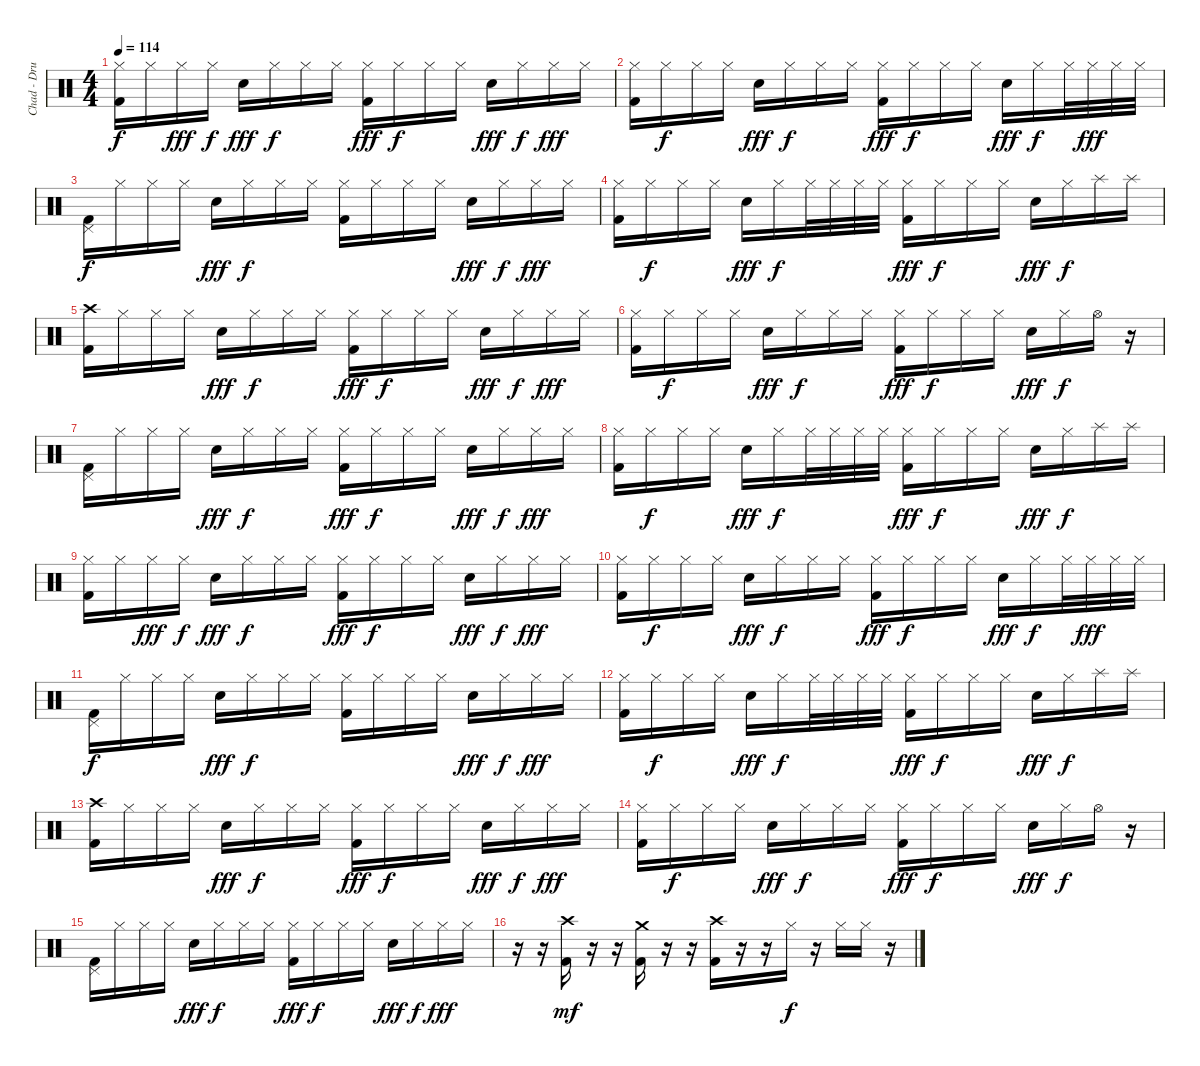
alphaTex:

\track ("Chad - Drums" "Chad - Dru") {instrument percussion}
\staff {score}
\articulation defaults
\ts (4 4)
\tempo 114
\clef neutral
\ks c
("Hi-Hat (closed)" "Kick (hit) 2").16{dy f} "Hi-Hat (closed)".16 "Hi-Hat (closed)".16{dy fff} "Hi-Hat (closed)".16{dy f} "Electric Snare (hit)".16{dy fff} "Hi-Hat (closed)".16{dy f} "Hi-Hat (closed)".16 "Hi-Hat (closed)".16 ("Hi-Hat (closed)" "Kick (hit) 2").16{dy fff} "Hi-Hat (closed)".16{dy f} "Hi-Hat (closed)".16 "Hi-Hat (closed)".16 "Electric Snare (hit)".16{dy fff} "Hi-Hat (closed)".16{dy f} "Hi-Hat (closed)".16{dy fff} "Hi-Hat (closed)".16 |
("Hi-Hat (closed)" "Kick (hit) 2").16 "Hi-Hat (closed)".16{dy f} "Hi-Hat (closed)".16 "Hi-Hat (closed)".16 "Electric Snare (hit)".16{dy fff} "Hi-Hat (closed)".16{dy f} "Hi-Hat (closed)".16 "Hi-Hat (closed)".16 ("Hi-Hat (closed)" "Kick (hit) 2").16{dy fff} "Hi-Hat (closed)".16{dy f} "Hi-Hat (closed)".16 "Hi-Hat (closed)".16 "Electric Snare (hit)".16{dy fff} "Hi-Hat (closed)".16{dy f} "Hi-Hat (closed)".32 "Hi-Hat (closed)".32{dy fff} "Hi-Hat (closed)".32 "Hi-Hat (closed)".32 |
("Pedal Hi-Hat (hit)" "Kick (hit) 2").16{dy f} "Hi-Hat (closed)".16 "Hi-Hat (closed)".16 "Hi-Hat (closed)".16 "Electric Snare (hit)".16{dy fff} "Hi-Hat (closed)".16{dy f} "Hi-Hat (closed)".16 "Hi-Hat (closed)".16 ("Hi-Hat (closed)" "Kick (hit) 2").16 "Hi-Hat (closed)".16 "Hi-Hat (closed)".16 "Hi-Hat (closed)".16 "Electric Snare (hit)".16{dy fff} "Hi-Hat (closed)".16{dy f} "Hi-Hat (closed)".16{dy fff} "Hi-Hat (closed)".16 |
("Hi-Hat (closed)" "Kick (hit) 2").16 "Hi-Hat (closed)".16{dy f} "Hi-Hat (closed)".16 "Hi-Hat (closed)".16 "Electric Snare (hit)".16{dy fff} "Hi-Hat (closed)".16{dy f} "Hi-Hat (closed)".32 "Hi-Hat (closed)".32 "Hi-Hat (closed)".32 "Hi-Hat (closed)".32 ("Hi-Hat (closed)" "Kick (hit) 2").16{dy fff} "Hi-Hat (closed)".16{dy f} "Hi-Hat (closed)".16 "Hi-Hat (closed)".16 "Electric Snare (hit)".16{dy fff} "Hi-Hat (closed)".16{dy f} "Splash (hit)".16 "Splash (hit)".16 |
("Crash high (hit)" "Kick (hit) 2").16 "Hi-Hat (closed)".16 "Hi-Hat (closed)".16 "Hi-Hat (closed)".16 "Electric Snare (hit)".16{dy fff} "Hi-Hat (closed)".16{dy f} "Hi-Hat (closed)".16 "Hi-Hat (closed)".16 ("Hi-Hat (closed)" "Kick (hit) 2").16{dy fff} "Hi-Hat (closed)".16{dy f} "Hi-Hat (closed)".16 "Hi-Hat (closed)".16 "Electric Snare (hit)".16{dy fff} "Hi-Hat (closed)".16{dy f} "Hi-Hat (closed)".16{dy fff} "Hi-Hat (closed)".16 |
("Hi-Hat (closed)" "Kick (hit) 2").16 "Hi-Hat (closed)".16{dy f} "Hi-Hat (closed)".16 "Hi-Hat (closed)".16 "Electric Snare (hit)".16{dy fff} "Hi-Hat (closed)".16{dy f} "Hi-Hat (closed)".16 "Hi-Hat (closed)".16 ("Hi-Hat (closed)" "Kick (hit) 2").16{dy fff} "Hi-Hat (closed)".16{dy f} "Hi-Hat (closed)".16 "Hi-Hat (closed)".16 "Electric Snare (hit)".16{dy fff} "Hi-Hat (closed)".16{dy f} "Hi-Hat (open)".16 r.16 |
("Pedal Hi-Hat (hit)" "Kick (hit) 2").16 "Hi-Hat (closed)".16 "Hi-Hat (closed)".16 "Hi-Hat (closed)".16 "Electric Snare (hit)".16{dy fff} "Hi-Hat (closed)".16{dy f} "Hi-Hat (closed)".16 "Hi-Hat (closed)".16 ("Hi-Hat (closed)" "Kick (hit) 2").16{dy fff} "Hi-Hat (closed)".16{dy f} "Hi-Hat (closed)".16 "Hi-Hat (closed)".16 "Electric Snare (hit)".16{dy fff} "Hi-Hat (closed)".16{dy f} "Hi-Hat (closed)".16{dy fff} "Hi-Hat (closed)".16 |
("Hi-Hat (closed)" "Kick (hit) 2").16 "Hi-Hat (closed)".16{dy f} "Hi-Hat (closed)".16 "Hi-Hat (closed)".16 "Electric Snare (hit)".16{dy fff} "Hi-Hat (closed)".16{dy f} "Hi-Hat (closed)".32 "Hi-Hat (closed)".32 "Hi-Hat (closed)".32 "Hi-Hat (closed)".32 ("Hi-Hat (closed)" "Kick (hit) 2").16{dy fff} "Hi-Hat (closed)".16{dy f} "Hi-Hat (closed)".16 "Hi-Hat (closed)".16 "Electric Snare (hit)".16{dy fff} "Hi-Hat (closed)".16{dy f} "Splash (hit)".16 "Splash (hit)".16 |
("Hi-Hat (closed)" "Kick (hit) 2").16 "Hi-Hat (closed)".16 "Hi-Hat (closed)".16{dy fff} "Hi-Hat (closed)".16{dy f} "Electric Snare (hit)".16{dy fff} "Hi-Hat (closed)".16{dy f} "Hi-Hat (closed)".16 "Hi-Hat (closed)".16 ("Hi-Hat (closed)" "Kick (hit) 2").16{dy fff} "Hi-Hat (closed)".16{dy f} "Hi-Hat (closed)".16 "Hi-Hat (closed)".16 "Electric Snare (hit)".16{dy fff} "Hi-Hat (closed)".16{dy f} "Hi-Hat (closed)".16{dy fff} "Hi-Hat (closed)".16 |
("Hi-Hat (closed)" "Kick (hit) 2").16 "Hi-Hat (closed)".16{dy f} "Hi-Hat (closed)".16 "Hi-Hat (closed)".16 "Electric Snare (hit)".16{dy fff} "Hi-Hat (closed)".16{dy f} "Hi-Hat (closed)".16 "Hi-Hat (closed)".16 ("Hi-Hat (closed)" "Kick (hit) 2").16{dy fff} "Hi-Hat (closed)".16{dy f} "Hi-Hat (closed)".16 "Hi-Hat (closed)".16 "Electric Snare (hit)".16{dy fff} "Hi-Hat (closed)".16{dy f} "Hi-Hat (closed)".32 "Hi-Hat (closed)".32{dy fff} "Hi-Hat (closed)".32 "Hi-Hat (closed)".32 |
("Pedal Hi-Hat (hit)" "Kick (hit) 2").16{dy f} "Hi-Hat (closed)".16 "Hi-Hat (closed)".16 "Hi-Hat (closed)".16 "Electric Snare (hit)".16{dy fff} "Hi-Hat (closed)".16{dy f} "Hi-Hat (closed)".16 "Hi-Hat (closed)".16 ("Hi-Hat (closed)" "Kick (hit) 2").16 "Hi-Hat (closed)".16 "Hi-Hat (closed)".16 "Hi-Hat (closed)".16 "Electric Snare (hit)".16{dy fff} "Hi-Hat (closed)".16{dy f} "Hi-Hat (closed)".16{dy fff} "Hi-Hat (closed)".16 |
("Hi-Hat (closed)" "Kick (hit) 2").16 "Hi-Hat (closed)".16{dy f} "Hi-Hat (closed)".16 "Hi-Hat (closed)".16 "Electric Snare (hit)".16{dy fff} "Hi-Hat (closed)".16{dy f} "Hi-Hat (closed)".32 "Hi-Hat (closed)".32 "Hi-Hat (closed)".32 "Hi-Hat (closed)".32 ("Hi-Hat (closed)" "Kick (hit) 2").16{dy fff} "Hi-Hat (closed)".16{dy f} "Hi-Hat (closed)".16 "Hi-Hat (closed)".16 "Electric Snare (hit)".16{dy fff} "Hi-Hat (closed)".16{dy f} "Splash (hit)".16 "Splash (hit)".16 |
("Crash high (hit)" "Kick (hit) 2").16 "Hi-Hat (closed)".16 "Hi-Hat (closed)".16 "Hi-Hat (closed)".16 "Electric Snare (hit)".16{dy fff} "Hi-Hat (closed)".16{dy f} "Hi-Hat (closed)".16 "Hi-Hat (closed)".16 ("Hi-Hat (closed)" "Kick (hit) 2").16{dy fff} "Hi-Hat (closed)".16{dy f} "Hi-Hat (closed)".16 "Hi-Hat (closed)".16 "Electric Snare (hit)".16{dy fff} "Hi-Hat (closed)".16{dy f} "Hi-Hat (closed)".16{dy fff} "Hi-Hat (closed)".16 |
("Hi-Hat (closed)" "Kick (hit) 2").16 "Hi-Hat (closed)".16{dy f} "Hi-Hat (closed)".16 "Hi-Hat (closed)".16 "Electric Snare (hit)".16{dy fff} "Hi-Hat (closed)".16{dy f} "Hi-Hat (closed)".16 "Hi-Hat (closed)".16 ("Hi-Hat (closed)" "Kick (hit) 2").16{dy fff} "Hi-Hat (closed)".16{dy f} "Hi-Hat (closed)".16 "Hi-Hat (closed)".16 "Electric Snare (hit)".16{dy fff} "Hi-Hat (closed)".16{dy f} "Hi-Hat (open)".16 r.16 |
("Pedal Hi-Hat (hit)" "Kick (hit) 2").16 "Hi-Hat (closed)".16 "Hi-Hat (closed)".16 "Hi-Hat (closed)".16 "Electric Snare (hit)".16{dy fff} "Hi-Hat (closed)".16{dy f} "Hi-Hat (closed)".16 "Hi-Hat (closed)".16 ("Hi-Hat (closed)" "Kick (hit) 2").16{dy fff} "Hi-Hat (closed)".16{dy f} "Hi-Hat (closed)".16 "Hi-Hat (closed)".16 "Electric Snare (hit)".16{dy fff} "Hi-Hat (closed)".16{dy f} "Hi-Hat (closed)".16{dy fff} "Hi-Hat (closed)".16 |
r.16 r.16 ("Crash high (hit)" "Kick (hit) 2").16{dy mf} r.16 r.16 ("Crash medium (hit)" "Kick (hit) 2").16 r.16 r.16 ("Crash high (hit)" "Kick (hit) 2").16 r.16 r.16 "Hi-Hat (closed)".16{dy f} r.16 "Hi-Hat (closed)".16 "Hi-Hat (closed)".16 r.16
